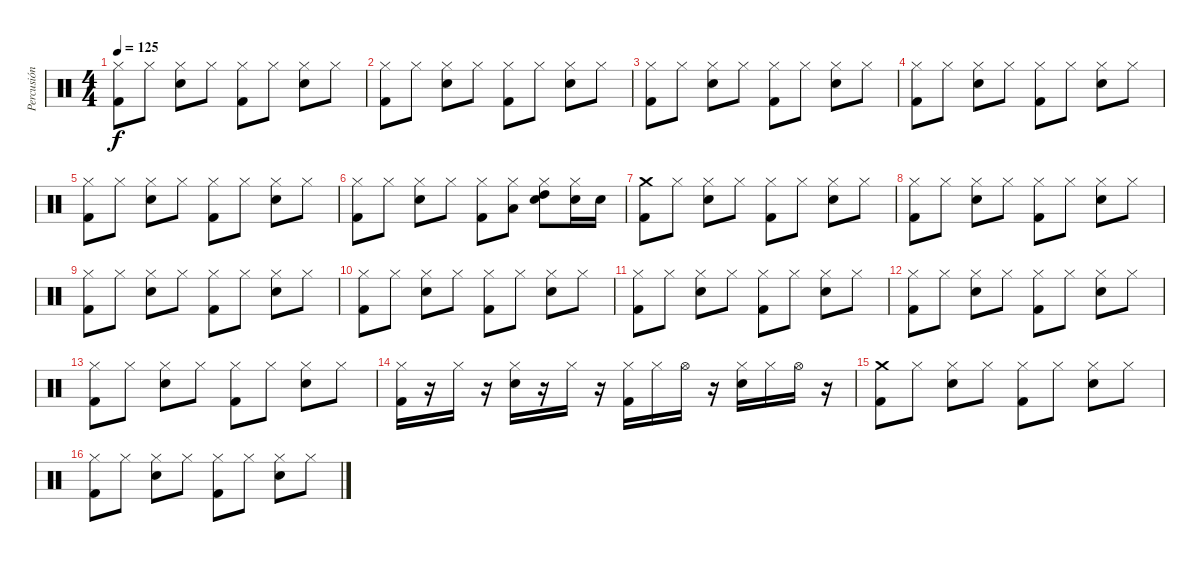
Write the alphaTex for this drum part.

\track ("Percusión" "Percusión") {instrument percussion}
\staff {score}
\articulation defaults
\ts (4 4)
\tempo 125
\clef neutral
\ks c
("Hi-Hat (closed)" "Kick (hit) 2").8{dy f} "Hi-Hat (closed)".8 ("Hi-Hat (closed)" "Snare (hit) 2").8 "Hi-Hat (closed)".8 ("Hi-Hat (closed)" "Kick (hit) 2").8 "Hi-Hat (closed)".8 ("Hi-Hat (closed)" "Snare (hit) 2").8 "Hi-Hat (closed)".8 |
("Hi-Hat (closed)" "Kick (hit) 2").8 "Hi-Hat (closed)".8 ("Hi-Hat (closed)" "Snare (hit) 2").8 "Hi-Hat (closed)".8 ("Hi-Hat (closed)" "Kick (hit) 2").8 "Hi-Hat (closed)".8 ("Hi-Hat (closed)" "Snare (hit) 2").8 "Hi-Hat (closed)".8 |
("Hi-Hat (closed)" "Kick (hit) 2").8 "Hi-Hat (closed)".8 ("Hi-Hat (closed)" "Snare (hit) 2").8 "Hi-Hat (closed)".8 ("Hi-Hat (closed)" "Kick (hit) 2").8 "Hi-Hat (closed)".8 ("Hi-Hat (closed)" "Snare (hit) 2").8 "Hi-Hat (closed)".8 |
("Hi-Hat (closed)" "Kick (hit) 2").8 "Hi-Hat (closed)".8 ("Hi-Hat (closed)" "Snare (hit) 2").8 "Hi-Hat (closed)".8 ("Hi-Hat (closed)" "Kick (hit) 2").8 "Hi-Hat (closed)".8 ("Hi-Hat (closed)" "Snare (hit) 2").8 "Hi-Hat (closed)".8 |
("Hi-Hat (closed)" "Kick (hit) 2").8 "Hi-Hat (closed)".8 ("Hi-Hat (closed)" "Snare (hit) 2").8 "Hi-Hat (closed)".8 ("Hi-Hat (closed)" "Kick (hit) 2").8 "Hi-Hat (closed)".8 ("Hi-Hat (closed)" "Snare (hit) 2").8 "Hi-Hat (closed)".8 |
("Hi-Hat (closed)" "Kick (hit) 2").8 "Hi-Hat (closed)".8 ("Hi-Hat (closed)" "Snare (hit) 2").8 "Hi-Hat (closed)".8 ("Hi-Hat (closed)" "Kick (hit) 2").8 ("Hi-Hat (closed)" "Low Tom (hit)").8 ("Hi-Hat (closed)" "High Tom (hit)" "Snare (hit) 2").8 ("Hi-Hat (closed)" "Snare (hit) 2").16 "Snare (hit) 2".16 |
("Crash medium (hit)" "Kick (hit) 2").8 "Hi-Hat (closed)".8 ("Hi-Hat (closed)" "Snare (hit) 2").8 "Hi-Hat (closed)".8 ("Hi-Hat (closed)" "Kick (hit) 2").8 "Hi-Hat (closed)".8 ("Hi-Hat (closed)" "Snare (hit) 2").8 "Hi-Hat (closed)".8 |
("Hi-Hat (closed)" "Kick (hit) 2").8 "Hi-Hat (closed)".8 ("Hi-Hat (closed)" "Snare (hit) 2").8 "Hi-Hat (closed)".8 ("Hi-Hat (closed)" "Kick (hit) 2").8 "Hi-Hat (closed)".8 ("Hi-Hat (closed)" "Snare (hit) 2").8 "Hi-Hat (closed)".8 |
("Hi-Hat (closed)" "Kick (hit) 2").8 "Hi-Hat (closed)".8 ("Hi-Hat (closed)" "Snare (hit) 2").8 "Hi-Hat (closed)".8 ("Hi-Hat (closed)" "Kick (hit) 2").8 "Hi-Hat (closed)".8 ("Hi-Hat (closed)" "Snare (hit) 2").8 "Hi-Hat (closed)".8 |
("Hi-Hat (closed)" "Kick (hit) 2").8 "Hi-Hat (closed)".8 ("Hi-Hat (closed)" "Snare (hit) 2").8 "Hi-Hat (closed)".8 ("Hi-Hat (closed)" "Kick (hit) 2").8 "Hi-Hat (closed)".8 ("Hi-Hat (closed)" "Snare (hit) 2").8 "Hi-Hat (closed)".8 |
("Hi-Hat (closed)" "Kick (hit) 2").8 "Hi-Hat (closed)".8 ("Hi-Hat (closed)" "Snare (hit) 2").8 "Hi-Hat (closed)".8 ("Hi-Hat (closed)" "Kick (hit) 2").8 "Hi-Hat (closed)".8 ("Hi-Hat (closed)" "Snare (hit) 2").8 "Hi-Hat (closed)".8 |
("Hi-Hat (closed)" "Kick (hit) 2").8 "Hi-Hat (closed)".8 ("Hi-Hat (closed)" "Snare (hit) 2").8 "Hi-Hat (closed)".8 ("Hi-Hat (closed)" "Kick (hit) 2").8 "Hi-Hat (closed)".8 ("Hi-Hat (closed)" "Snare (hit) 2").8 "Hi-Hat (closed)".8 |
("Hi-Hat (closed)" "Kick (hit) 2").8 "Hi-Hat (closed)".8 ("Hi-Hat (closed)" "Snare (hit) 2").8 "Hi-Hat (closed)".8 ("Hi-Hat (closed)" "Kick (hit) 2").8 "Hi-Hat (closed)".8 ("Hi-Hat (closed)" "Snare (hit) 2").8 "Hi-Hat (closed)".8 |
("Hi-Hat (closed)" "Kick (hit) 2").16 r.16 "Hi-Hat (closed)".16 r.16 ("Hi-Hat (closed)" "Snare (hit) 2").16 r.16 "Hi-Hat (closed)".16 r.16 ("Hi-Hat (closed)" "Kick (hit) 2").16 "Hi-Hat (closed)".16 "Hi-Hat (open)".16 r.16 ("Hi-Hat (closed)" "Snare (hit) 2").16 "Hi-Hat (closed)".16 "Hi-Hat (open)".16 r.16 |
("Crash medium (hit)" "Kick (hit) 2").8 "Hi-Hat (closed)".8 ("Hi-Hat (closed)" "Snare (hit) 2").8 "Hi-Hat (closed)".8 ("Hi-Hat (closed)" "Kick (hit) 2").8 "Hi-Hat (closed)".8 ("Hi-Hat (closed)" "Snare (hit) 2").8 "Hi-Hat (closed)".8 |
("Hi-Hat (closed)" "Kick (hit) 2").8 "Hi-Hat (closed)".8 ("Hi-Hat (closed)" "Snare (hit) 2").8 "Hi-Hat (closed)".8 ("Hi-Hat (closed)" "Kick (hit) 2").8 "Hi-Hat (closed)".8 ("Hi-Hat (closed)" "Snare (hit) 2").8 "Hi-Hat (closed)".8
